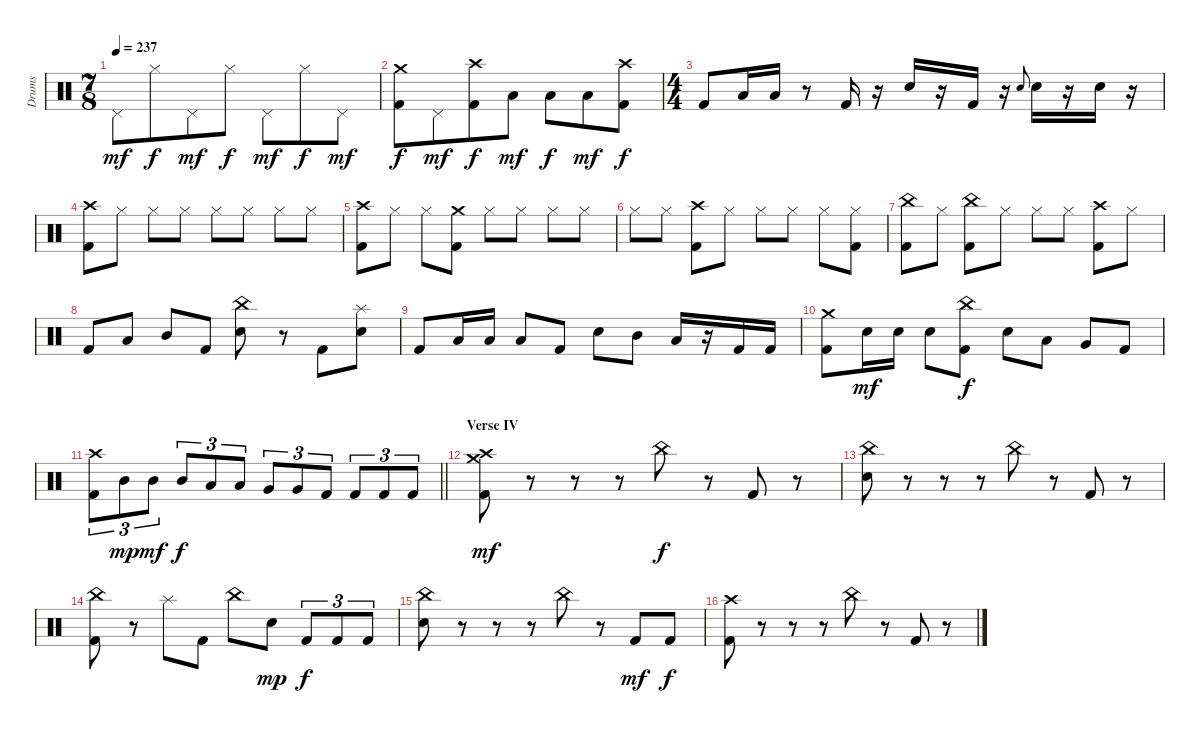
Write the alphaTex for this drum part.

\track ("Drums" "Drums") {instrument percussion}
\staff {score}
\articulation defaults
\ts (7 8)
\tempo 237
\clef neutral
\ks c "Pedal Hi-Hat (hit)".8{dy mf} "Hi-Hat (closed)".8{dy f} "Pedal Hi-Hat (hit)".8{dy mf} "Hi-Hat (closed)".8{dy f} "Pedal Hi-Hat (hit)".8{dy mf} "Hi-Hat (closed)".8{dy f} "Pedal Hi-Hat (hit)".8{dy mf}
|
("Crash medium (hit)" "Kick (hit) 2").8{dy f} "Pedal Hi-Hat (hit)".8{dy mf} ("Crash high (hit)" "Kick (hit) 2").8{dy f} "Low Tom (hit)".8{dy mf} "Low Tom (hit)".8{dy f} "Low Floor Tom (hit)".8{dy mf} ("Crash high (hit)" "Kick (hit) 2").8{dy f} |
\ts (4 4)
"Kick (hit) 2".8 "Low Tom (hit)".16 "Low Tom (hit)".16 r.8 "Kick (hit) 2".16 r.16 "Electric Snare (hit)".16 r.16 "Kick (hit) 2".16 r.16 "Electric Snare (hit)".8{gr onbeat} "Electric Snare (hit)".16 r.16 "Electric Snare (hit)".16 r.16 |
("Crash high (hit)" "Kick (hit) 2").8 "Hi-Hat (closed)".8 "Hi-Hat (closed)".8 "Hi-Hat (closed)".8 "Hi-Hat (closed)".8 "Hi-Hat (closed)".8 "Hi-Hat (closed)".8 "Hi-Hat (closed)".8 |
("Crash high (hit)" "Kick (hit) 2").8 "Hi-Hat (closed)".8 "Hi-Hat (closed)".8 ("Crash medium (hit)" "Kick (hit) 2").8 "Hi-Hat (closed)".8 "Hi-Hat (closed)".8 "Hi-Hat (closed)".8 "Hi-Hat (closed)".8 |
"Hi-Hat (closed)".8 "Hi-Hat (closed)".8 ("Crash high (hit)" "Kick (hit) 2").8 "Hi-Hat (closed)".8 "Hi-Hat (closed)".8 "Hi-Hat (closed)".8 "Hi-Hat (closed)".8 ("Hi-Hat (closed)" "Kick (hit) 2").8 |
("China (hit)" "Kick (hit) 2").8 "Hi-Hat (closed)".8 ("China (hit)" "Kick (hit) 2").8 "Hi-Hat (closed)".8 "Hi-Hat (closed)".8 "Hi-Hat (closed)".8 ("Crash high (hit)" "Kick (hit) 2").8 "Hi-Hat (closed)".8 |
"Kick (hit) 2".8 "Low Tom (hit)".8 "Mid Tom (hit)".8 "Kick (hit) 2".8 ("Electric Snare (hit)" "China (hit)").8 r.8 "Kick (hit) 2".8 ("Electric Snare (hit)" "Splash (hit)").8 |
"Kick (hit) 2".8 "Low Tom (hit)".16 "Low Tom (hit)".16 "Low Tom (hit)".8 "Kick (hit) 2".8 "Electric Snare (hit)".8 "Mid Tom (hit)".8 "Low Tom (hit)".16 r.16 "Kick (hit) 2".16 "Kick (hit) 2".16 |
("Crash medium (hit)" "Kick (hit) 2").8 "Electric Snare (hit)".16{dy mf} "Electric Snare (hit)".16 "Electric Snare (hit)".8 ("China (hit)" "Kick (hit) 2").8{dy f} "Electric Snare (hit)".8 "Low Tom (hit)".8 "Very Low Tom (hit)".8 "Kick (hit) 2".8 |
\barLineRight lightlight
("Crash high (hit)" "Kick (hit) 2").8{tu (3 2)} "Mid Tom (hit)".8{tu (3 2) dy mp} "Mid Tom (hit)".8{tu (3 2) dy mf} "Mid Tom (hit)".8{tu (3 2) dy f} "Low Tom (hit)".8{tu (3 2)} "Low Tom (hit)".8{tu (3 2)} "Very Low Tom (hit)".8{tu (3 2)} "Very Low Tom (hit)".8{tu (3 2)} "Kick (hit) 2".8{tu (3 2)} "Kick (hit) 2".8{tu (3 2)} "Kick (hit) 2".8{tu (3 2)} "Kick (hit) 2".8{tu (3 2)} |
\section ("" "Verse IV")
("Crash high (hit)" "Crash medium (hit)" "Kick (hit) 2").8{dy mf} r.8 r.8 r.8 "China (hit)".8{dy f} r.8 "Kick (hit) 2".8 r.8 |
("China (hit)" "Electric Snare (hit)").8 r.8 r.8 r.8 "China (hit)".8 r.8 "Kick (hit) 2".8 r.8 |
("China (hit)" "Kick (hit) 2").8 r.8 "Splash (hit)".8 "Kick (hit) 2".8 "China (hit)".8 "Electric Snare (hit)".8{dy mp} "Kick (hit) 2".8{tu (3 2) dy f} "Kick (hit) 2".8{tu (3 2)} "Kick (hit) 2".8{tu (3 2)} |
("China (hit)" "Electric Snare (hit)").8 r.8 r.8 r.8 "China (hit)".8 r.8 "Kick (hit) 2".8{dy mf} "Kick (hit) 2".8{dy f} |
("Crash high (hit)" "Kick (hit) 2").8 r.8 r.8 r.8 "China (hit)".8 r.8 "Kick (hit) 2".8 r.8
